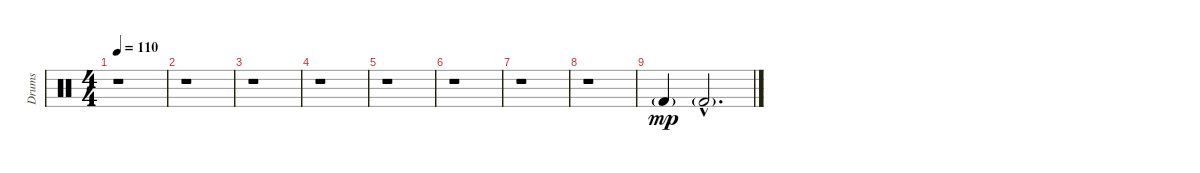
\track ("Drums" "Drums") {instrument percussion}
\staff {score}
\articulation defaults
\ts (4 4)
\tempo 110
\clef neutral
\ks c
r.1{dy f} |
r.1 |
r.1 |
r.1 |
r.1 |
r.1 |
r.1 |
r.1 |
"Kick (hit) 2"{g}.4{dy mp} "Kick (hit) 2"{g hac}.2{d}
